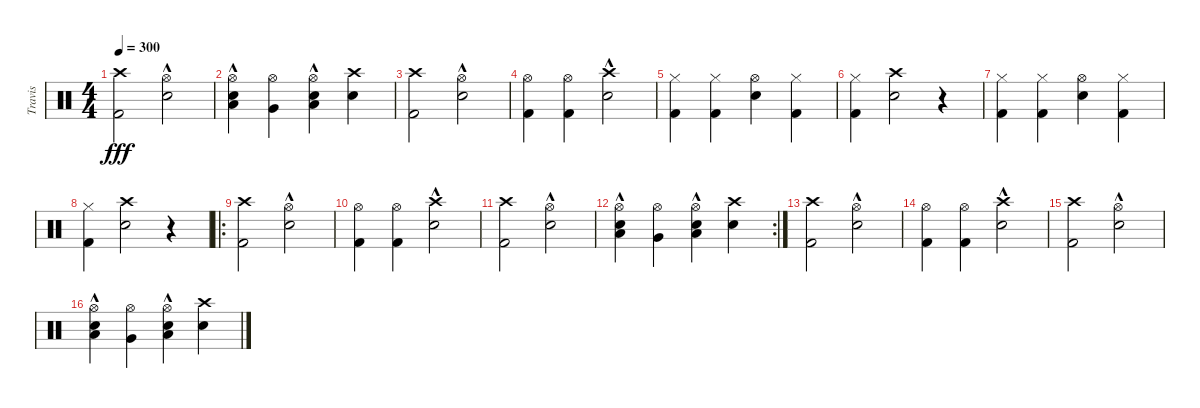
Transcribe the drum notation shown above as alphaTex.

\track ("Travis" "Travis") {instrument percussion}
\staff {score}
\articulation defaults
\ts (4 4)
\tempo 300
\clef neutral
\ks c
("Crash high (hit)" "Kick (hit) 2").2{dy fff} ("Hi-Hat (open)" "Electric Snare (hit)"{hac}).2 |
("Hi-Hat (open)" "Low Tom (hit)" "Electric Snare (hit)"{hac}).4 ("Hi-Hat (open)" "Very Low Tom (hit)").4 ("Hi-Hat (open)" "Low Floor Tom (hit)" "Electric Snare (hit)"{hac}).4 ("Crash high (hit)" "Electric Snare (hit)").4 |
("Crash high (hit)" "Kick (hit) 2").2 ("Hi-Hat (open)" "Electric Snare (hit)"{hac}).2 |
("Hi-Hat (open)" "Kick (hit) 2").4 ("Hi-Hat (open)" "Kick (hit) 2").4 ("Crash high (hit)" "Electric Snare (hit)"{hac}).2 |
("Hi-Hat (closed)" "Kick (hit) 2").4 ("Hi-Hat (closed)" "Kick (hit) 2").4 ("Hi-Hat (open)" "Electric Snare (hit)").4 ("Hi-Hat (closed)" "Kick (hit) 2").4 |
("Hi-Hat (closed)" "Kick (hit) 2").4 ("Crash high (hit)" "Electric Snare (hit)").2 r.4 |
("Hi-Hat (closed)" "Kick (hit) 2").4 ("Hi-Hat (closed)" "Kick (hit) 2").4 ("Hi-Hat (open)" "Electric Snare (hit)").4 ("Hi-Hat (closed)" "Kick (hit) 2").4 |
("Hi-Hat (closed)" "Kick (hit) 2").4 ("Crash high (hit)" "Electric Snare (hit)").2 r.4 |
\ro
("Crash high (hit)" "Kick (hit) 2").2 ("Hi-Hat (open)" "Electric Snare (hit)"{hac}).2 |
("Hi-Hat (open)" "Kick (hit) 2").4 ("Hi-Hat (open)" "Kick (hit) 2").4 ("Crash high (hit)" "Electric Snare (hit)"{hac}).2 |
("Crash high (hit)" "Kick (hit) 2").2 ("Hi-Hat (open)" "Electric Snare (hit)"{hac}).2 |
\rc 2
("Hi-Hat (open)" "Low Tom (hit)" "Electric Snare (hit)"{hac}).4 ("Hi-Hat (open)" "Very Low Tom (hit)").4 ("Hi-Hat (open)" "Low Floor Tom (hit)" "Electric Snare (hit)"{hac}).4 ("Crash high (hit)" "Electric Snare (hit)").4 |
("Crash high (hit)" "Kick (hit) 2").2 ("Hi-Hat (open)" "Electric Snare (hit)"{hac}).2 |
("Hi-Hat (open)" "Kick (hit) 2").4 ("Hi-Hat (open)" "Kick (hit) 2").4 ("Crash high (hit)" "Electric Snare (hit)"{hac}).2 |
("Crash high (hit)" "Kick (hit) 2").2 ("Hi-Hat (open)" "Electric Snare (hit)"{hac}).2 |
("Hi-Hat (open)" "Low Tom (hit)" "Electric Snare (hit)"{hac}).4 ("Hi-Hat (open)" "Very Low Tom (hit)").4 ("Hi-Hat (open)" "Low Floor Tom (hit)" "Electric Snare (hit)"{hac}).4 ("Crash high (hit)" "Electric Snare (hit)").4
